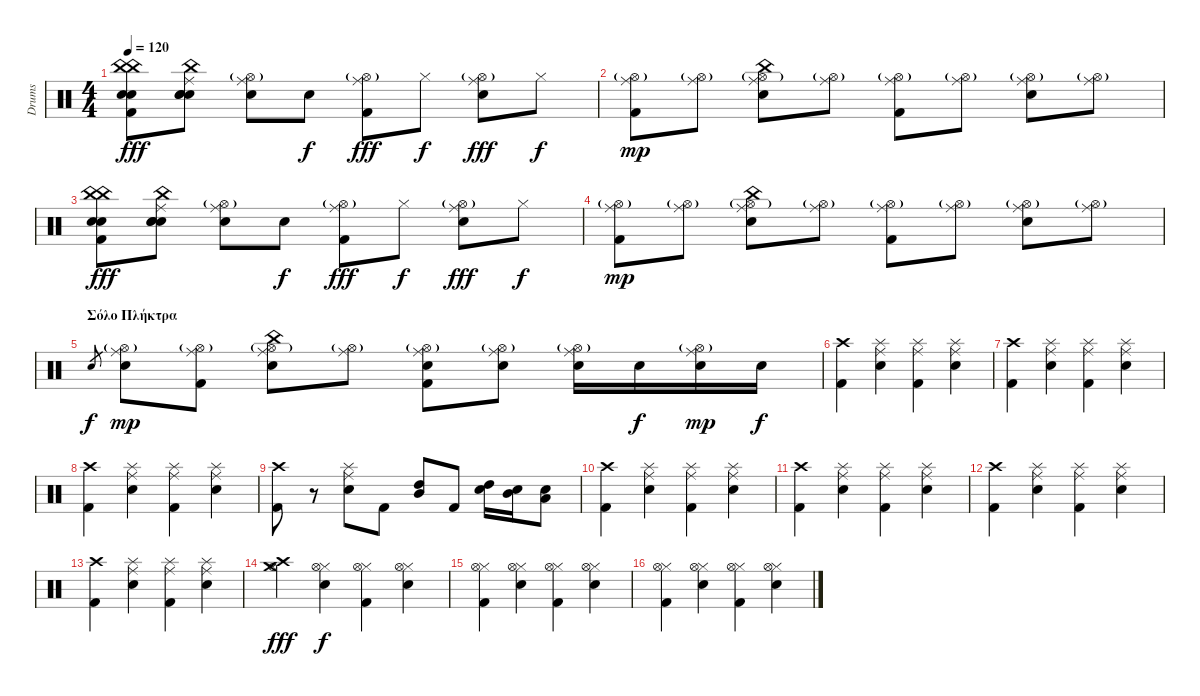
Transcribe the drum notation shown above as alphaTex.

\track ("Drums" "Drums") {instrument percussion}
\staff {score}
\articulation defaults
\ts (4 4)
\tempo 120
\clef neutral
\ks c
("China (hit)" "China (hit)" "Hand Clap (hit)" "Hand Clap (hit)" "Kick (hit) 2").8{dy fff} ("China (hit)" "Ride (middle)" "Snare (hit)" "Hand Clap (hit)" "Hand Clap (hit)").8 ("Hi-Hat (open)"{g} "Ride (middle)" "Electric Snare (hit)").8 "Electric Snare (hit)".8{dy f} ("Hi-Hat (open)"{g} "Ride (middle)" "Kick (hit) 2").8{dy fff} "Hi-Hat (closed)".8{dy f} ("Hi-Hat (open)"{g} "Ride (middle)" "Electric Snare (hit)").8{dy fff} "Hi-Hat (closed)".8{dy f} |
("Ride (middle)" "Hi-Hat (open)"{g} "Kick (hit) 2").8{dy mp} ("Ride (middle)" "Hi-Hat (open)"{g}).8 ("Ride (middle)" "Hi-Hat (open)"{g} "Electric Snare (hit)" "China (hit)").8 ("Ride (middle)" "Hi-Hat (open)"{g}).8 ("Ride (middle)" "Hi-Hat (open)"{g} "Kick (hit) 2").8 ("Ride (middle)" "Hi-Hat (open)"{g}).8 ("Ride (middle)" "Hi-Hat (open)"{g} "Electric Snare (hit)").8 ("Ride (middle)" "Hi-Hat (open)"{g}).8 |
("China (hit)" "China (hit)" "Hand Clap (hit)" "Hand Clap (hit)" "Kick (hit) 2").8{dy fff} ("China (hit)" "Ride (middle)" "Snare (hit)" "Hand Clap (hit)" "Hand Clap (hit)").8 ("Hi-Hat (open)"{g} "Ride (middle)" "Electric Snare (hit)").8 "Electric Snare (hit)".8{dy f} ("Hi-Hat (open)"{g} "Ride (middle)" "Kick (hit) 2").8{dy fff} "Hi-Hat (closed)".8{dy f} ("Hi-Hat (open)"{g} "Ride (middle)" "Electric Snare (hit)").8{dy fff} "Hi-Hat (closed)".8{dy f} |
("Ride (middle)" "Hi-Hat (open)"{g} "Kick (hit) 2").8{dy mp} ("Ride (middle)" "Hi-Hat (open)"{g}).8 ("Ride (middle)" "Hi-Hat (open)"{g} "Electric Snare (hit)" "China (hit)").8 ("Ride (middle)" "Hi-Hat (open)"{g}).8 ("Ride (middle)" "Hi-Hat (open)"{g} "Kick (hit) 2").8 ("Ride (middle)" "Hi-Hat (open)"{g}).8 ("Ride (middle)" "Hi-Hat (open)"{g} "Electric Snare (hit)").8 ("Ride (middle)" "Hi-Hat (open)"{g}).8 |
\section ("" "Σόλο Πλήκτρα")
"Electric Snare (hit)".8{gr dy f} ("Ride (middle)" "Hi-Hat (open)"{g} "Electric Snare (hit)").8{dy mp} ("Ride (middle)" "Hi-Hat (open)"{g} "Kick (hit) 2").8 ("Ride (middle)" "Hi-Hat (open)"{g} "Electric Snare (hit)" "China (hit)").8 ("Ride (middle)" "Hi-Hat (open)"{g}).8 ("Ride (middle)" "Hi-Hat (open)"{g} "Electric Snare (hit)" "Kick (hit) 2").8 ("Ride (middle)" "Hi-Hat (open)"{g} "Electric Snare (hit)").8 ("Ride (middle)" "Hi-Hat (open)"{g} "Electric Snare (hit)").16 "Electric Snare (hit)".16{dy f} ("Ride (middle)" "Hi-Hat (open)"{g} "Electric Snare (hit)").16{dy mp} "Electric Snare (hit)".16{dy f} |
("Crash high (hit)" "Kick (hit) 2").4 ("Ride (middle)" "Splash (hit)" "Electric Snare (hit)").4 ("Ride (middle)" "Splash (hit)" "Kick (hit) 2").4 ("Ride (middle)" "Splash (hit)" "Electric Snare (hit)").4 |
("Crash high (hit)" "Kick (hit) 2").4 ("Ride (middle)" "Splash (hit)" "Electric Snare (hit)").4 ("Ride (middle)" "Splash (hit)" "Kick (hit) 2").4 ("Ride (middle)" "Splash (hit)" "Electric Snare (hit)").4 |
("Crash high (hit)" "Kick (hit) 2").4 ("Ride (middle)" "Splash (hit)" "Electric Snare (hit)").4 ("Ride (middle)" "Splash (hit)" "Kick (hit) 2").4 ("Ride (middle)" "Splash (hit)" "Electric Snare (hit)").4 |
("Crash high (hit)" "Kick (hit) 2").8 r.8 ("Ride (middle)" "Splash (hit)" "Electric Snare (hit)").8 "Kick (hit) 2".8 ("Mid Tom (hit)" "High Tom (hit)").8 "Kick (hit) 2".8 ("High Tom (hit)" "Electric Snare (hit)").16 ("Mid Tom (hit)" "Electric Snare (hit)").16 ("Low Tom (hit)" "Electric Snare (hit)").8 |
("Crash high (hit)" "Kick (hit) 2").4 ("Ride (middle)" "Splash (hit)" "Electric Snare (hit)").4 ("Ride (middle)" "Splash (hit)" "Kick (hit) 2").4 ("Ride (middle)" "Splash (hit)" "Electric Snare (hit)").4 |
("Crash high (hit)" "Kick (hit) 2").4 ("Ride (middle)" "Splash (hit)" "Electric Snare (hit)").4 ("Ride (middle)" "Splash (hit)" "Kick (hit) 2").4 ("Ride (middle)" "Splash (hit)" "Electric Snare (hit)").4 |
("Crash high (hit)" "Kick (hit) 2").4 ("Ride (middle)" "Splash (hit)" "Electric Snare (hit)").4 ("Ride (middle)" "Splash (hit)" "Kick (hit) 2").4 ("Ride (middle)" "Splash (hit)" "Electric Snare (hit)").4 |
("Crash high (hit)" "Kick (hit) 2").4 ("Ride (middle)" "Splash (hit)" "Electric Snare (hit)").4 ("Ride (middle)" "Splash (hit)" "Kick (hit) 2").4 ("Ride (middle)" "Splash (hit)" "Electric Snare (hit)").4 |
("Crash high (hit)" "Crash medium (hit)" "Hi-Hat (open)").4{dy fff} ("Electric Snare (hit)" "Hi-Hat (closed)" "Hi-Hat (open)").4{dy f} ("Kick (hit) 2" "Hi-Hat (closed)" "Hi-Hat (open)").4 ("Electric Snare (hit)" "Hi-Hat (closed)" "Hi-Hat (open)").4 |
("Kick (hit) 2" "Hi-Hat (closed)" "Hi-Hat (open)").4 ("Electric Snare (hit)" "Hi-Hat (closed)" "Hi-Hat (open)").4 ("Kick (hit) 2" "Hi-Hat (closed)" "Hi-Hat (open)").4 ("Electric Snare (hit)" "Hi-Hat (closed)" "Hi-Hat (open)").4 |
("Kick (hit) 2" "Hi-Hat (closed)" "Hi-Hat (open)").4 ("Electric Snare (hit)" "Hi-Hat (closed)" "Hi-Hat (open)").4 ("Kick (hit) 2" "Hi-Hat (closed)" "Hi-Hat (open)").4 ("Electric Snare (hit)" "Hi-Hat (closed)" "Hi-Hat (open)").4
